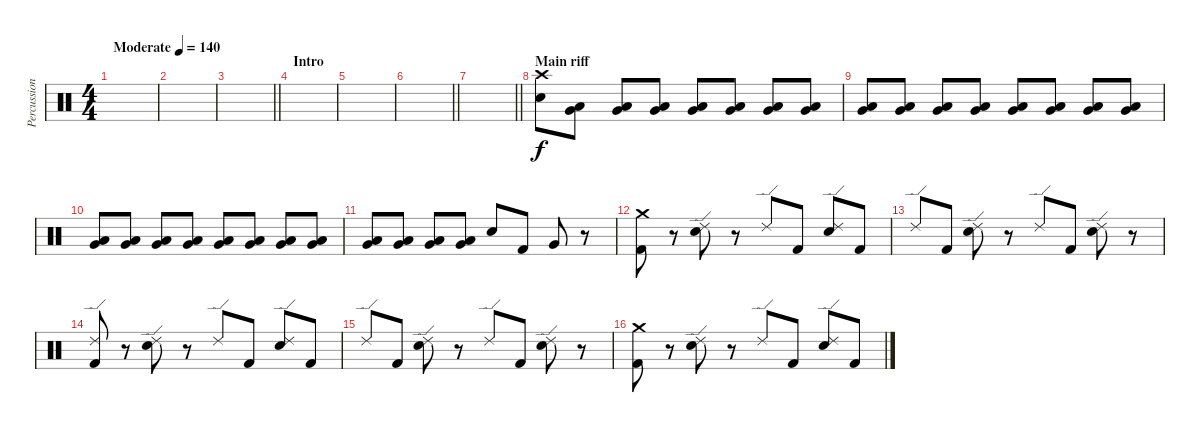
\track ("Percussion" "Percussion") {instrument percussion}
\staff {score}
\articulation defaults
\ts (4 4)
\tempo (140 "Moderate")
\clef neutral
\ks c
|
|
\barLineRight lightlight
|
\section ("" "Intro")
|
|
\barLineRight lightlight
|
\barLineRight lightlight
|
\section ("" "Main riff")
("Crash high (hit)" "Electric Snare (hit)").8 ("Very Low Tom (hit)" "Low Floor Tom (hit)").8 ("Very Low Tom (hit)" "Low Floor Tom (hit)").8 ("Very Low Tom (hit)" "Low Floor Tom (hit)").8 ("Very Low Tom (hit)" "Low Floor Tom (hit)").8 ("Very Low Tom (hit)" "Low Floor Tom (hit)").8 ("Very Low Tom (hit)" "Low Floor Tom (hit)").8 ("Very Low Tom (hit)" "Low Floor Tom (hit)").8 |
("Very Low Tom (hit)" "Low Floor Tom (hit)").8 ("Very Low Tom (hit)" "Low Floor Tom (hit)").8 ("Very Low Tom (hit)" "Low Floor Tom (hit)").8 ("Very Low Tom (hit)" "Low Floor Tom (hit)").8 ("Very Low Tom (hit)" "Low Floor Tom (hit)").8 ("Very Low Tom (hit)" "Low Floor Tom (hit)").8 ("Very Low Tom (hit)" "Low Floor Tom (hit)").8 ("Very Low Tom (hit)" "Low Floor Tom (hit)").8 |
("Very Low Tom (hit)" "Low Floor Tom (hit)").8 ("Very Low Tom (hit)" "Low Floor Tom (hit)").8 ("Very Low Tom (hit)" "Low Floor Tom (hit)").8 ("Very Low Tom (hit)" "Low Floor Tom (hit)").8 ("Very Low Tom (hit)" "Low Floor Tom (hit)").8 ("Very Low Tom (hit)" "Low Floor Tom (hit)").8 ("Very Low Tom (hit)" "Low Floor Tom (hit)").8 ("Very Low Tom (hit)" "Low Floor Tom (hit)").8 |
("Very Low Tom (hit)" "Low Floor Tom (hit)").8 ("Very Low Tom (hit)" "Low Floor Tom (hit)").8 ("Very Low Tom (hit)" "Low Floor Tom (hit)").8 ("Very Low Tom (hit)" "Low Floor Tom (hit)").8 "Electric Snare (hit)".8 "Kick (hit) 2".8 "Very Low Tom (hit)".8 r.8 |
("Crash medium (hit)" "Kick (hit) 2").8 r.8 ("Ride (edge) 2" "Electric Snare (hit)").8 r.8 "Ride (edge) 2".8 "Kick (hit) 2".8 ("Ride (edge) 2" "Electric Snare (hit)").8 "Kick (hit) 2".8 |
"Ride (edge) 2".8 "Kick (hit) 2".8 ("Ride (edge) 2" "Electric Snare (hit)").8 r.8 "Ride (edge) 2".8 "Kick (hit) 2".8 ("Ride (edge) 2" "Electric Snare (hit)").8 r.8 |
("Ride (edge) 2" "Kick (hit) 2").8 r.8 ("Ride (edge) 2" "Electric Snare (hit)").8 r.8 "Ride (edge) 2".8 "Kick (hit) 2".8 ("Ride (edge) 2" "Electric Snare (hit)").8 "Kick (hit) 2".8 |
"Ride (edge) 2".8 "Kick (hit) 2".8 ("Ride (edge) 2" "Electric Snare (hit)").8 r.8 "Ride (edge) 2".8 "Kick (hit) 2".8 ("Ride (edge) 2" "Electric Snare (hit)").8 r.8 |
("Crash medium (hit)" "Kick (hit) 2").8 r.8 ("Ride (edge) 2" "Electric Snare (hit)").8 r.8 "Ride (edge) 2".8 "Kick (hit) 2".8 ("Ride (edge) 2" "Electric Snare (hit)").8 "Kick (hit) 2".8
